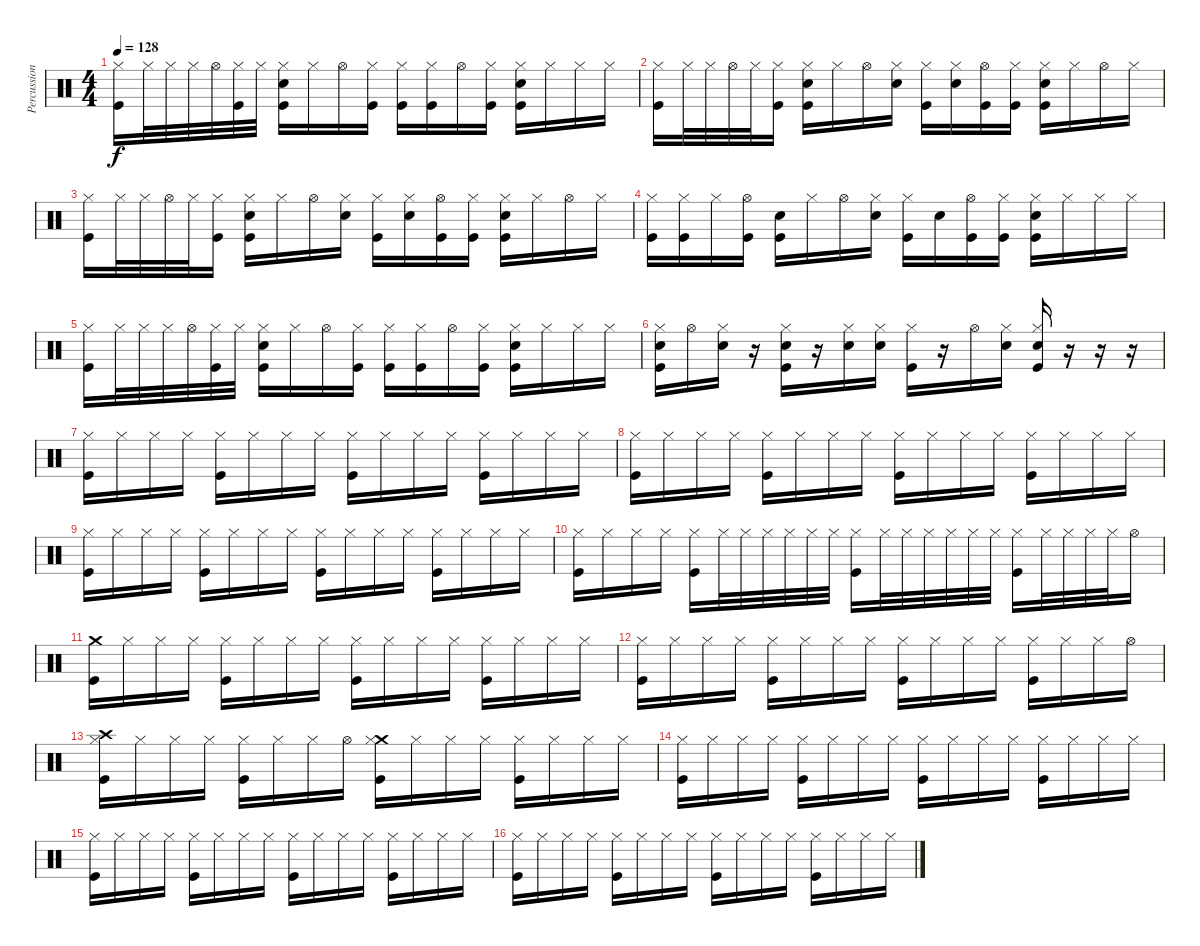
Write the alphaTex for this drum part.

\track ("Percussion" "Percussion") {instrument percussion}
\staff {score}
\articulation defaults
\ts (4 4)
\tempo 128
\clef neutral
\ks c
("Kick (hit)" "Hi-Hat (closed)").16{dy f} "Hi-Hat (closed)".32 "Hi-Hat (closed)".32 "Hi-Hat (closed)".32 "Hi-Hat (open)".32 ("Kick (hit)" "Hi-Hat (closed)").32 "Hi-Hat (closed)".32 ("Kick (hit)" "Snare (hit) 2" "Hi-Hat (closed)").16 "Hi-Hat (closed)".16 "Hi-Hat (open)".16 ("Kick (hit)" "Hi-Hat (closed)").16 ("Kick (hit)" "Hi-Hat (closed)").16 ("Kick (hit)" "Hi-Hat (closed)").16 "Hi-Hat (open)".16 ("Kick (hit)" "Hi-Hat (closed)").16 ("Kick (hit)" "Snare (hit) 2" "Hi-Hat (closed)").16 "Hi-Hat (closed)".16 "Hi-Hat (closed)".16 "Hi-Hat (closed)".16 |
("Kick (hit)" "Hi-Hat (closed)").16 "Hi-Hat (closed)".32 "Hi-Hat (closed)".32 "Hi-Hat (open)".32 "Hi-Hat (closed)".32 ("Kick (hit)" "Hi-Hat (closed)").16 ("Kick (hit)" "Snare (hit) 2" "Hi-Hat (closed)").16 "Hi-Hat (closed)".16 "Hi-Hat (open)".16 ("Snare (hit) 2" "Hi-Hat (closed)").16 ("Kick (hit)" "Hi-Hat (closed)").16 ("Snare (hit) 2" "Hi-Hat (closed)").16 ("Kick (hit)" "Hi-Hat (open)").16 ("Kick (hit)" "Hi-Hat (closed)").16 ("Kick (hit)" "Snare (hit) 2" "Hi-Hat (closed)").16 "Hi-Hat (closed)".16 "Hi-Hat (open)".16 "Hi-Hat (closed)".16 |
("Kick (hit)" "Hi-Hat (closed)").16 "Hi-Hat (closed)".32 "Hi-Hat (closed)".32 "Hi-Hat (open)".32 "Hi-Hat (closed)".32 ("Kick (hit)" "Hi-Hat (closed)").16 ("Kick (hit)" "Snare (hit) 2" "Hi-Hat (closed)").16 "Hi-Hat (closed)".16 "Hi-Hat (open)".16 ("Snare (hit) 2" "Hi-Hat (closed)").16 ("Kick (hit)" "Hi-Hat (closed)").16 ("Snare (hit) 2" "Hi-Hat (closed)").16 ("Kick (hit)" "Hi-Hat (open)").16 ("Kick (hit)" "Hi-Hat (closed)").16 ("Kick (hit)" "Snare (hit) 2" "Hi-Hat (closed)").16 "Hi-Hat (closed)".16 "Hi-Hat (open)".16 "Hi-Hat (closed)".16 |
("Kick (hit)" "Hi-Hat (closed)").16 ("Kick (hit)" "Hi-Hat (closed)").16 "Hi-Hat (closed)".16 ("Kick (hit)" "Hi-Hat (open)").16 ("Kick (hit)" "Snare (hit) 2").16 "Hi-Hat (closed)".16 "Hi-Hat (open)".16 ("Snare (hit) 2" "Hi-Hat (closed)").16 ("Kick (hit)" "Hi-Hat (closed)").16 "Snare (hit) 2".16 ("Kick (hit)" "Hi-Hat (open)").16 ("Kick (hit)" "Hi-Hat (closed)").16 ("Kick (hit)" "Snare (hit) 2" "Hi-Hat (closed)").16 "Hi-Hat (closed)".16 "Hi-Hat (closed)".16 "Hi-Hat (closed)".16 |
("Kick (hit)" "Hi-Hat (closed)").16 "Hi-Hat (closed)".32 "Hi-Hat (closed)".32 "Hi-Hat (closed)".32 "Hi-Hat (open)".32 ("Kick (hit)" "Hi-Hat (closed)").32 "Hi-Hat (closed)".32 ("Kick (hit)" "Snare (hit) 2" "Hi-Hat (closed)").16 "Hi-Hat (closed)".16 "Hi-Hat (open)".16 ("Kick (hit)" "Hi-Hat (closed)").16 ("Kick (hit)" "Hi-Hat (closed)").16 ("Kick (hit)" "Hi-Hat (closed)").16 "Hi-Hat (open)".16 ("Kick (hit)" "Hi-Hat (closed)").16 ("Kick (hit)" "Snare (hit) 2" "Hi-Hat (closed)").16 "Hi-Hat (closed)".16 "Hi-Hat (closed)".16 "Hi-Hat (closed)".16 |
("Kick (hit)" "Snare (hit) 2" "Hi-Hat (closed)").16 "Hi-Hat (open)".16 ("Snare (hit) 2" "Hi-Hat (closed)").16 r.16 ("Kick (hit)" "Snare (hit) 2" "Hi-Hat (closed)").16 r.16 ("Snare (hit) 2" "Hi-Hat (closed)").16 ("Snare (hit) 2" "Hi-Hat (closed)").16 ("Kick (hit)" "Hi-Hat (closed)").16 r.16 "Hi-Hat (open)".16 ("Snare (hit) 2" "Hi-Hat (closed)").16 ("Kick (hit)" "Snare (hit) 2" "Hi-Hat (closed)").16 r.16 r.16 r.16 |
("Kick (hit)" "Hi-Hat (closed)").16 "Hi-Hat (closed)".16 "Hi-Hat (closed)".16 "Hi-Hat (closed)".16 ("Kick (hit)" "Hi-Hat (closed)").16 "Hi-Hat (closed)".16 "Hi-Hat (closed)".16 "Hi-Hat (closed)".16 ("Kick (hit)" "Hi-Hat (closed)").16 "Hi-Hat (closed)".16 "Hi-Hat (closed)".16 "Hi-Hat (closed)".16 ("Kick (hit)" "Hi-Hat (closed)").16 "Hi-Hat (closed)".16 "Hi-Hat (closed)".16 "Hi-Hat (closed)".16 |
("Kick (hit)" "Hi-Hat (closed)").16 "Hi-Hat (closed)".16 "Hi-Hat (closed)".16 "Hi-Hat (closed)".16 ("Kick (hit)" "Hi-Hat (closed)").16 "Hi-Hat (closed)".16 "Hi-Hat (closed)".16 "Hi-Hat (closed)".16 ("Kick (hit)" "Hi-Hat (closed)").16 "Hi-Hat (closed)".16 "Hi-Hat (closed)".16 "Hi-Hat (closed)".16 ("Kick (hit)" "Hi-Hat (closed)").16 "Hi-Hat (closed)".16 "Hi-Hat (closed)".16 "Hi-Hat (closed)".16 |
("Kick (hit)" "Hi-Hat (closed)").16 "Hi-Hat (closed)".16 "Hi-Hat (closed)".16 "Hi-Hat (closed)".16 ("Kick (hit)" "Hi-Hat (closed)").16 "Hi-Hat (closed)".16 "Hi-Hat (closed)".16 "Hi-Hat (closed)".16 ("Kick (hit)" "Hi-Hat (closed)").16 "Hi-Hat (closed)".16 "Hi-Hat (closed)".16 "Hi-Hat (closed)".16 ("Kick (hit)" "Hi-Hat (closed)").16 "Hi-Hat (closed)".16 "Hi-Hat (closed)".16 "Hi-Hat (closed)".16 |
("Kick (hit)" "Hi-Hat (closed)").16 "Hi-Hat (closed)".16 "Hi-Hat (closed)".16 "Hi-Hat (closed)".16 ("Kick (hit)" "Hi-Hat (closed)").16 "Hi-Hat (closed)".32 "Hi-Hat (closed)".32 "Hi-Hat (closed)".32 "Hi-Hat (closed)".32 "Hi-Hat (closed)".32 "Hi-Hat (closed)".32 ("Kick (hit)" "Hi-Hat (closed)").16 "Hi-Hat (closed)".32 "Hi-Hat (closed)".32 "Hi-Hat (closed)".32 "Hi-Hat (closed)".32 "Hi-Hat (closed)".32 "Hi-Hat (closed)".32 ("Kick (hit)" "Hi-Hat (closed)").16 "Hi-Hat (closed)".32 "Hi-Hat (closed)".32 "Hi-Hat (closed)".32 "Hi-Hat (closed)".32 "Hi-Hat (open)".16 |
("Kick (hit)" "Crash medium (hit)").16 "Hi-Hat (closed)".16 "Hi-Hat (closed)".16 "Hi-Hat (closed)".16 ("Kick (hit)" "Hi-Hat (closed)").16 "Hi-Hat (closed)".16 "Hi-Hat (closed)".16 "Hi-Hat (closed)".16 ("Kick (hit)" "Hi-Hat (closed)").16 "Hi-Hat (closed)".16 "Hi-Hat (closed)".16 "Hi-Hat (closed)".16 ("Kick (hit)" "Hi-Hat (closed)").16 "Hi-Hat (closed)".16 "Hi-Hat (closed)".16 "Hi-Hat (closed)".16 |
("Kick (hit)" "Hi-Hat (closed)").16 "Hi-Hat (closed)".16 "Hi-Hat (closed)".16 "Hi-Hat (closed)".16 ("Kick (hit)" "Hi-Hat (closed)").16 "Hi-Hat (closed)".16 "Hi-Hat (closed)".16 "Hi-Hat (closed)".16 ("Kick (hit)" "Hi-Hat (closed)").16 "Hi-Hat (closed)".16 "Hi-Hat (closed)".16 "Hi-Hat (closed)".16 ("Kick (hit)" "Hi-Hat (closed)").16 "Hi-Hat (closed)".16 "Hi-Hat (closed)".16 "Hi-Hat (open)".16 |
("Kick (hit)" "Crash high (hit)" "Hi-Hat (closed)").16 "Hi-Hat (closed)".16 "Hi-Hat (closed)".16 "Hi-Hat (closed)".16 ("Kick (hit)" "Hi-Hat (closed)").16 "Hi-Hat (closed)".16 "Hi-Hat (closed)".16 "Hi-Hat (open)".16 ("Kick (hit)" "Crash medium (hit)" "Hi-Hat (closed)").16 "Hi-Hat (closed)".16 "Hi-Hat (closed)".16 "Hi-Hat (closed)".16 ("Kick (hit)" "Hi-Hat (closed)").16 "Hi-Hat (closed)".16 "Hi-Hat (closed)".16 "Hi-Hat (closed)".16 |
("Kick (hit)" "Hi-Hat (closed)").16 "Hi-Hat (closed)".16 "Hi-Hat (closed)".16 "Hi-Hat (closed)".16 ("Kick (hit)" "Hi-Hat (closed)").16 "Hi-Hat (closed)".16 "Hi-Hat (closed)".16 "Hi-Hat (closed)".16 ("Kick (hit)" "Hi-Hat (closed)").16 "Hi-Hat (closed)".16 "Hi-Hat (closed)".16 "Hi-Hat (closed)".16 ("Kick (hit)" "Hi-Hat (closed)").16 "Hi-Hat (closed)".16 "Hi-Hat (closed)".16 "Hi-Hat (closed)".16 |
("Kick (hit)" "Hi-Hat (closed)").16 "Hi-Hat (closed)".16 "Hi-Hat (closed)".16 "Hi-Hat (closed)".16 ("Kick (hit)" "Hi-Hat (closed)").16 "Hi-Hat (closed)".16 "Hi-Hat (closed)".16 "Hi-Hat (closed)".16 ("Kick (hit)" "Hi-Hat (closed)").16 "Hi-Hat (closed)".16 "Hi-Hat (closed)".16 "Hi-Hat (closed)".16 ("Kick (hit)" "Hi-Hat (closed)").16 "Hi-Hat (closed)".16 "Hi-Hat (closed)".16 "Hi-Hat (closed)".16 |
("Kick (hit)" "Hi-Hat (closed)").16 "Hi-Hat (closed)".16 "Hi-Hat (closed)".16 "Hi-Hat (closed)".16 ("Kick (hit)" "Hi-Hat (closed)").16 "Hi-Hat (closed)".16 "Hi-Hat (closed)".16 "Hi-Hat (closed)".16 ("Kick (hit)" "Hi-Hat (closed)").16 "Hi-Hat (closed)".16 "Hi-Hat (closed)".16 "Hi-Hat (closed)".16 ("Kick (hit)" "Hi-Hat (closed)").16 "Hi-Hat (closed)".16 "Hi-Hat (closed)".16 "Hi-Hat (closed)".16
